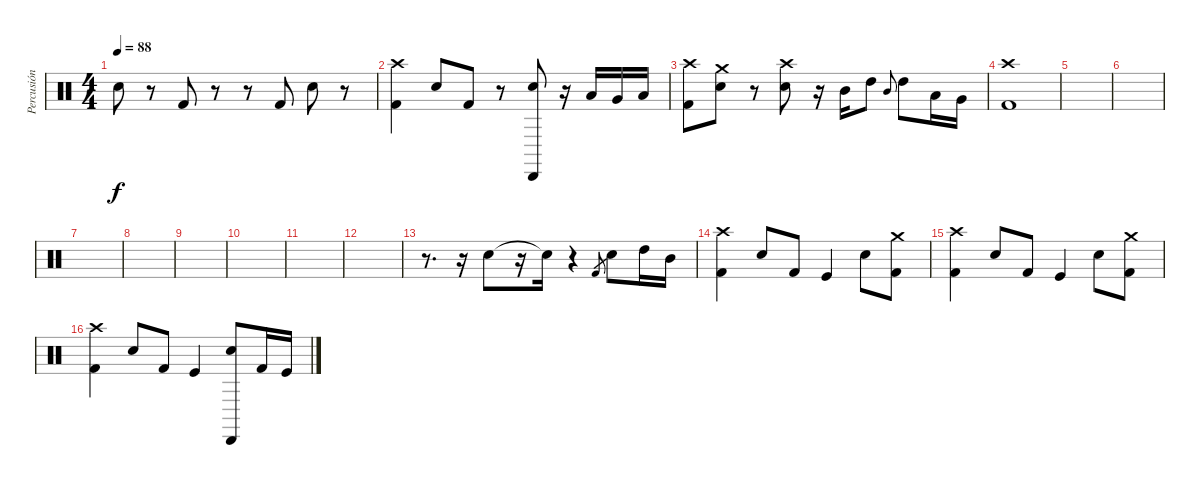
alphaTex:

\track ("Percusión" "Percusión") {instrument percussion}
\staff {score}
\articulation defaults
\ts (4 4)
\tempo 88
\clef neutral
\ks c "Snare (hit) 2".8{dy f}
r.8 "Kick (hit) 2".8 r.8 r.8 "Kick (hit) 2".8 "Snare (hit) 2".8 r.8 |
("Crash high (hit)" "Kick (hit) 2").4 "Snare (hit) 2".8 "Kick (hit) 2".8 r.8 ("Cabasa (hit)" "Snare (hit) 2").8 r.16 "Low Tom (hit)".16 "Very Low Tom (hit)".16 "Low Floor Tom (hit)".16 |
("Crash high (hit)" "Kick (hit) 2").8 ("Crash medium (hit)" "Snare (hit) 2").8 r.8 ("Crash high (hit)" "Snare (hit) 2").8 r.16 "Mid Tom (hit)".16 "High Tom (hit)".8 "Mid Tom (hit)".8{gr onbeat} "High Tom (hit)".8 "Low Tom (hit)".16 "Very Low Tom (hit)".16 |
("Crash high (hit)" "Kick (hit) 2").1 |
|
|
|
|
|
|
|
|
r.8{d} r.16 "Snare (hit)".8 r.16 "Snare (hit)"{t}.16 r.4 "Kick (hit) 2".8{gr} "Snare (hit) 2".8 "High Tom (hit)".16 "Mid Tom (hit)".16 |
("Crash high (hit)" "Kick (hit) 2").4 "Snare (hit) 2".8 "Kick (hit) 2".8 "Kick (hit)".4 "Snare (hit) 2".8 ("Crash medium (hit)" "Kick (hit) 2").8 |
("Crash high (hit)" "Kick (hit) 2").4 "Snare (hit) 2".8 "Kick (hit) 2".8 "Kick (hit)".4 "Snare (hit) 2".8 ("Crash medium (hit)" "Kick (hit) 2").8 |
("Crash high (hit)" "Kick (hit) 2").4 "Snare (hit) 2".8 "Kick (hit) 2".8 "Kick (hit)".4 ("Cabasa (hit)" "Snare (hit) 2").8 "Kick (hit) 2".16 "Kick (hit)".16
